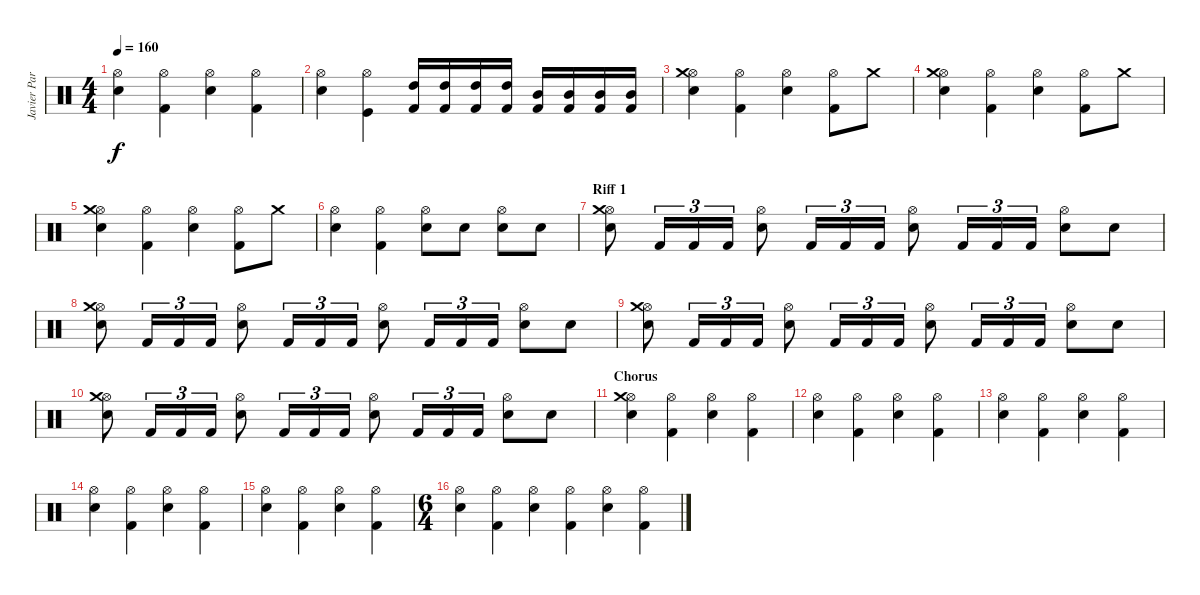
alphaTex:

\track ("Javier Partida" "Javier Par") {instrument percussion}
\staff {score}
\articulation defaults
\ts (4 4)
\tempo 160
\clef neutral
\ks c
("Hi-Hat (open)" "Snare (hit) 2").4{dy f} ("Hi-Hat (open)" "Kick (hit) 2").4 ("Hi-Hat (open)" "Snare (hit) 2").4 ("Hi-Hat (open)" "Kick (hit) 2").4 |
("Hi-Hat (open)" "Snare (hit) 2").4 ("Hi-Hat (open)" "Kick (hit)").4 ("Kick (hit) 2" "High Tom (hit)").16 ("Kick (hit) 2" "High Tom (hit)").16 ("Kick (hit) 2" "High Tom (hit)").16 ("Kick (hit) 2" "High Tom (hit)").16 ("Kick (hit) 2" "Mid Tom (hit)").16 ("Kick (hit) 2" "Mid Tom (hit)").16 ("Kick (hit) 2" "Mid Tom (hit)").16 ("Kick (hit) 2" "Mid Tom (hit)").16 |
("Hi-Hat (open)" "Snare (hit) 2" "Crash medium (hit)").4 ("Hi-Hat (open)" "Kick (hit) 2").4 ("Hi-Hat (open)" "Snare (hit) 2").4 ("Hi-Hat (open)" "Kick (hit) 2").8 "Crash medium (hit)".8 |
("Hi-Hat (open)" "Snare (hit) 2" "Crash medium (hit)").4 ("Hi-Hat (open)" "Kick (hit) 2").4 ("Hi-Hat (open)" "Snare (hit) 2").4 ("Hi-Hat (open)" "Kick (hit) 2").8 "Crash medium (hit)".8 |
("Hi-Hat (open)" "Snare (hit) 2" "Crash medium (hit)").4 ("Hi-Hat (open)" "Kick (hit) 2").4 ("Hi-Hat (open)" "Snare (hit) 2").4 ("Hi-Hat (open)" "Kick (hit) 2").8 "Crash medium (hit)".8 |
("Hi-Hat (open)" "Snare (hit) 2").4 ("Hi-Hat (open)" "Kick (hit) 2").4 ("Hi-Hat (open)" "Snare (hit) 2").8 "Snare (hit) 2".8 ("Hi-Hat (open)" "Snare (hit) 2").8 "Snare (hit) 2".8 |
\section ("" "Riff 1")
("Hi-Hat (open)" "Snare (hit) 2" "Crash medium (hit)").8 "Kick (hit) 2".16{tu (3 2)} "Kick (hit) 2".16{tu (3 2)} "Kick (hit) 2".16{tu (3 2)} ("Hi-Hat (open)" "Snare (hit) 2").8 "Kick (hit) 2".16{tu (3 2)} "Kick (hit) 2".16{tu (3 2)} "Kick (hit) 2".16{tu (3 2)} ("Hi-Hat (open)" "Snare (hit) 2").8 "Kick (hit) 2".16{tu (3 2)} "Kick (hit) 2".16{tu (3 2)} "Kick (hit) 2".16{tu (3 2)} ("Hi-Hat (open)" "Snare (hit) 2").8 "Snare (hit) 2".8 |
("Hi-Hat (open)" "Snare (hit) 2" "Crash medium (hit)").8 "Kick (hit) 2".16{tu (3 2)} "Kick (hit) 2".16{tu (3 2)} "Kick (hit) 2".16{tu (3 2)} ("Hi-Hat (open)" "Snare (hit) 2").8 "Kick (hit) 2".16{tu (3 2)} "Kick (hit) 2".16{tu (3 2)} "Kick (hit) 2".16{tu (3 2)} ("Hi-Hat (open)" "Snare (hit) 2").8 "Kick (hit) 2".16{tu (3 2)} "Kick (hit) 2".16{tu (3 2)} "Kick (hit) 2".16{tu (3 2)} ("Hi-Hat (open)" "Snare (hit) 2").8 "Snare (hit) 2".8 |
("Hi-Hat (open)" "Snare (hit) 2" "Crash medium (hit)").8 "Kick (hit) 2".16{tu (3 2)} "Kick (hit) 2".16{tu (3 2)} "Kick (hit) 2".16{tu (3 2)} ("Hi-Hat (open)" "Snare (hit) 2").8 "Kick (hit) 2".16{tu (3 2)} "Kick (hit) 2".16{tu (3 2)} "Kick (hit) 2".16{tu (3 2)} ("Hi-Hat (open)" "Snare (hit) 2").8 "Kick (hit) 2".16{tu (3 2)} "Kick (hit) 2".16{tu (3 2)} "Kick (hit) 2".16{tu (3 2)} ("Hi-Hat (open)" "Snare (hit) 2").8 "Snare (hit) 2".8 |
("Hi-Hat (open)" "Snare (hit) 2" "Crash medium (hit)").8 "Kick (hit) 2".16{tu (3 2)} "Kick (hit) 2".16{tu (3 2)} "Kick (hit) 2".16{tu (3 2)} ("Hi-Hat (open)" "Snare (hit) 2").8 "Kick (hit) 2".16{tu (3 2)} "Kick (hit) 2".16{tu (3 2)} "Kick (hit) 2".16{tu (3 2)} ("Hi-Hat (open)" "Snare (hit) 2").8 "Kick (hit) 2".16{tu (3 2)} "Kick (hit) 2".16{tu (3 2)} "Kick (hit) 2".16{tu (3 2)} ("Hi-Hat (open)" "Snare (hit) 2").8 "Snare (hit) 2".8 |
\section ("" "Chorus")
("Hi-Hat (open)" "Snare (hit) 2" "Crash medium (hit)").4 ("Hi-Hat (open)" "Kick (hit) 2").4 ("Hi-Hat (open)" "Snare (hit) 2").4 ("Hi-Hat (open)" "Kick (hit) 2").4 |
("Hi-Hat (open)" "Snare (hit) 2").4 ("Hi-Hat (open)" "Kick (hit) 2").4 ("Hi-Hat (open)" "Snare (hit) 2").4 ("Hi-Hat (open)" "Kick (hit) 2").4 |
("Hi-Hat (open)" "Snare (hit) 2").4 ("Hi-Hat (open)" "Kick (hit) 2").4 ("Hi-Hat (open)" "Snare (hit) 2").4 ("Hi-Hat (open)" "Kick (hit) 2").4 |
("Hi-Hat (open)" "Snare (hit) 2").4 ("Hi-Hat (open)" "Kick (hit) 2").4 ("Hi-Hat (open)" "Snare (hit) 2").4 ("Hi-Hat (open)" "Kick (hit) 2").4 |
("Hi-Hat (open)" "Snare (hit) 2").4 ("Hi-Hat (open)" "Kick (hit) 2").4 ("Hi-Hat (open)" "Snare (hit) 2").4 ("Hi-Hat (open)" "Kick (hit) 2").4 |
\ts (6 4)
("Hi-Hat (open)" "Snare (hit) 2").4 ("Hi-Hat (open)" "Kick (hit) 2").4 ("Hi-Hat (open)" "Snare (hit) 2").4 ("Hi-Hat (open)" "Kick (hit) 2").4 ("Hi-Hat (open)" "Snare (hit) 2").4 ("Hi-Hat (open)" "Kick (hit) 2").4
